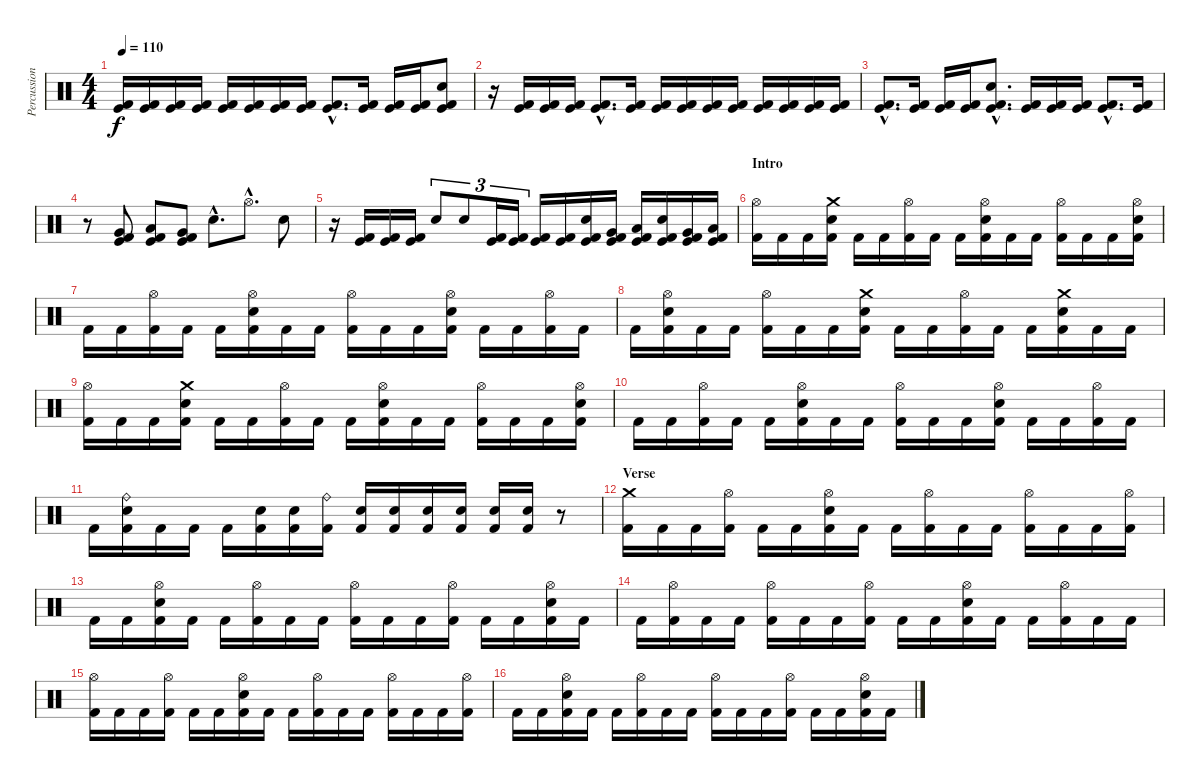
\track ("Percussion" "Percussion") {instrument percussion}
\staff {score}
\articulation defaults
\ts (4 4)
\tempo 110
\clef neutral
\ks c
("Kick (hit)" "Kick (hit) 2").16{dy f} ("Kick (hit)" "Kick (hit) 2").16 ("Kick (hit)" "Kick (hit) 2").16 ("Kick (hit)" "Kick (hit) 2").16 ("Kick (hit)" "Kick (hit) 2").16 ("Kick (hit)" "Kick (hit) 2").16 ("Kick (hit)" "Kick (hit) 2").16 ("Kick (hit)" "Kick (hit) 2").16 ("Kick (hit)"{hac} "Kick (hit) 2"{hac}).8{d} ("Kick (hit)" "Kick (hit) 2").16 ("Kick (hit)" "Kick (hit) 2").16 ("Kick (hit)" "Kick (hit) 2").16 ("Electric Snare (hit)" "Kick (hit)" "Kick (hit) 2").8 |
r.16 ("Kick (hit)" "Kick (hit) 2").16 ("Kick (hit)" "Kick (hit) 2").16 ("Kick (hit)" "Kick (hit) 2").16 ("Kick (hit)"{hac} "Kick (hit) 2"{hac}).8{d} ("Kick (hit)" "Kick (hit) 2").16 ("Kick (hit)" "Kick (hit) 2").16 ("Kick (hit)" "Kick (hit) 2").16 ("Kick (hit)" "Kick (hit) 2").16 ("Kick (hit)" "Kick (hit) 2").16 ("Kick (hit)" "Kick (hit) 2").16 ("Kick (hit)" "Kick (hit) 2").16 ("Kick (hit)" "Kick (hit) 2").16 ("Kick (hit)" "Kick (hit) 2").16 |
("Kick (hit)"{hac} "Kick (hit) 2"{hac}).8{d} ("Kick (hit)" "Kick (hit) 2").16 ("Kick (hit)" "Kick (hit) 2").16 ("Kick (hit)" "Kick (hit) 2").16 ("Electric Snare (hit)"{hac} "Kick (hit)"{hac} "Kick (hit) 2"{hac}).8{d} ("Kick (hit)" "Kick (hit) 2").16 ("Kick (hit)" "Kick (hit) 2").16 ("Kick (hit)" "Kick (hit) 2").16 ("Kick (hit)"{hac} "Kick (hit) 2"{hac}).8{d} ("Kick (hit)" "Kick (hit) 2").16 |
r.8 ("Very Low Tom (hit)" "Kick (hit) 2" "Kick (hit)").8 ("Low Tom (hit)" "Kick (hit) 2" "Kick (hit)").8 ("Very Low Tom (hit)" "Kick (hit) 2" "Kick (hit)").8 "Electric Snare (hit)"{hac}.8{d} "Hi-Hat (open)"{hac}.8{d} "Electric Snare (hit)".8 |
r.16 ("Kick (hit) 2" "Kick (hit)").16 ("Kick (hit) 2" "Kick (hit)").16 ("Kick (hit) 2" "Kick (hit)").16 "Electric Snare (hit)".8{tu (3 2)} "Electric Snare (hit)".8{tu (3 2)} ("Kick (hit) 2" "Kick (hit)").16{tu (3 2)} ("Kick (hit) 2" "Kick (hit)").16{tu (3 2)} ("Kick (hit) 2" "Kick (hit)").16 ("Kick (hit) 2" "Kick (hit)").16 ("Electric Snare (hit)" "Kick (hit) 2" "Kick (hit)").16 ("Very Low Tom (hit)" "Kick (hit) 2" "Kick (hit)").16 ("Low Floor Tom (hit)" "Kick (hit) 2" "Kick (hit)").16 ("Electric Snare (hit)" "Kick (hit) 2" "Kick (hit)").16 ("Very Low Tom (hit)" "Kick (hit) 2" "Kick (hit)").16 ("Low Floor Tom (hit)" "Kick (hit) 2" "Kick (hit)").16 |
\section ("" "Intro")
("Hi-Hat (open)" "Kick (hit) 2").16 "Kick (hit) 2".16 "Kick (hit) 2".16 ("Crash medium (hit)" "Electric Snare (hit)" "Kick (hit) 2").16 "Kick (hit) 2".16 "Kick (hit) 2".16 ("Hi-Hat (open)" "Kick (hit) 2").16 "Kick (hit) 2".16 "Kick (hit) 2".16 ("Hi-Hat (open)" "Electric Snare (hit)" "Kick (hit) 2").16 "Kick (hit) 2".16 "Kick (hit) 2".16 ("Hi-Hat (open)" "Kick (hit) 2").16 "Kick (hit) 2".16 "Kick (hit) 2".16 ("Hi-Hat (open)" "Electric Snare (hit)" "Kick (hit) 2").16 |
"Kick (hit) 2".16 "Kick (hit) 2".16 ("Hi-Hat (open)" "Kick (hit) 2").16 "Kick (hit) 2".16 "Kick (hit) 2".16 ("Hi-Hat (open)" "Electric Snare (hit)" "Kick (hit) 2").16 "Kick (hit) 2".16 "Kick (hit) 2".16 ("Hi-Hat (open)" "Kick (hit) 2").16 "Kick (hit) 2".16 "Kick (hit) 2".16 ("Hi-Hat (open)" "Electric Snare (hit)" "Kick (hit) 2").16 "Kick (hit) 2".16 "Kick (hit) 2".16 ("Hi-Hat (open)" "Kick (hit) 2").16 "Kick (hit) 2".16 |
"Kick (hit) 2".16 ("Hi-Hat (open)" "Electric Snare (hit)" "Kick (hit) 2").16 "Kick (hit) 2".16 "Kick (hit) 2".16 ("Hi-Hat (open)" "Kick (hit) 2").16 "Kick (hit) 2".16 "Kick (hit) 2".16 ("Crash medium (hit)" "Electric Snare (hit)" "Kick (hit) 2").16 "Kick (hit) 2".16 "Kick (hit) 2".16 ("Hi-Hat (open)" "Kick (hit) 2").16 "Kick (hit) 2".16 "Kick (hit) 2".16 ("Crash medium (hit)" "Electric Snare (hit)" "Kick (hit) 2").16 "Kick (hit) 2".16 "Kick (hit) 2".16 |
("Hi-Hat (open)" "Kick (hit) 2").16 "Kick (hit) 2".16 "Kick (hit) 2".16 ("Crash medium (hit)" "Electric Snare (hit)" "Kick (hit) 2").16 "Kick (hit) 2".16 "Kick (hit) 2".16 ("Hi-Hat (open)" "Kick (hit) 2").16 "Kick (hit) 2".16 "Kick (hit) 2".16 ("Hi-Hat (open)" "Electric Snare (hit)" "Kick (hit) 2").16 "Kick (hit) 2".16 "Kick (hit) 2".16 ("Hi-Hat (open)" "Kick (hit) 2").16 "Kick (hit) 2".16 "Kick (hit) 2".16 ("Hi-Hat (open)" "Electric Snare (hit)" "Kick (hit) 2").16 |
"Kick (hit) 2".16 "Kick (hit) 2".16 ("Hi-Hat (open)" "Kick (hit) 2").16 "Kick (hit) 2".16 "Kick (hit) 2".16 ("Hi-Hat (open)" "Electric Snare (hit)" "Kick (hit) 2").16 "Kick (hit) 2".16 "Kick (hit) 2".16 ("Hi-Hat (open)" "Kick (hit) 2").16 "Kick (hit) 2".16 "Kick (hit) 2".16 ("Hi-Hat (open)" "Electric Snare (hit)" "Kick (hit) 2").16 "Kick (hit) 2".16 "Kick (hit) 2".16 ("Hi-Hat (open)" "Kick (hit) 2").16 "Kick (hit) 2".16 |
"Kick (hit) 2".16 ("Ride (bell)" "Electric Snare (hit)" "Kick (hit) 2").16 "Kick (hit) 2".16 "Kick (hit) 2".16 "Kick (hit) 2".16 ("Electric Snare (hit)" "Kick (hit) 2").16 ("Electric Snare (hit)" "Kick (hit) 2").16 ("Ride (bell)" "Kick (hit) 2").16 ("Electric Snare (hit)" "Kick (hit) 2").16 ("Electric Snare (hit)" "Kick (hit) 2").16 ("Electric Snare (hit)" "Kick (hit) 2").16 ("Electric Snare (hit)" "Kick (hit) 2").16 ("Electric Snare (hit)" "Kick (hit) 2").16 ("Electric Snare (hit)" "Kick (hit) 2").16 r.8 |
\section ("" "Verse")
("Crash medium (hit)" "Kick (hit) 2").16 "Kick (hit) 2".16 "Kick (hit) 2".16 ("Hi-Hat (open)" "Kick (hit) 2").16 "Kick (hit) 2".16 "Kick (hit) 2".16 ("Hi-Hat (open)" "Electric Snare (hit)" "Kick (hit) 2").16 "Kick (hit) 2".16 "Kick (hit) 2".16 ("Hi-Hat (open)" "Kick (hit) 2").16 "Kick (hit) 2".16 "Kick (hit) 2".16 ("Hi-Hat (open)" "Kick (hit) 2").16 "Kick (hit) 2".16 "Kick (hit) 2".16 ("Hi-Hat (open)" "Kick (hit) 2").16 |
"Kick (hit) 2".16 "Kick (hit) 2".16 ("Hi-Hat (open)" "Electric Snare (hit)" "Kick (hit) 2").16 "Kick (hit) 2".16 "Kick (hit) 2".16 ("Hi-Hat (open)" "Kick (hit) 2").16 "Kick (hit) 2".16 "Kick (hit) 2".16 ("Hi-Hat (open)" "Kick (hit) 2").16 "Kick (hit) 2".16 "Kick (hit) 2".16 ("Hi-Hat (open)" "Kick (hit) 2").16 "Kick (hit) 2".16 "Kick (hit) 2".16 ("Hi-Hat (open)" "Electric Snare (hit)" "Kick (hit) 2").16 "Kick (hit) 2".16 |
"Kick (hit) 2".16 ("Hi-Hat (open)" "Kick (hit) 2").16 "Kick (hit) 2".16 "Kick (hit) 2".16 ("Hi-Hat (open)" "Kick (hit) 2").16 "Kick (hit) 2".16 "Kick (hit) 2".16 ("Hi-Hat (open)" "Kick (hit) 2").16 "Kick (hit) 2".16 "Kick (hit) 2".16 ("Hi-Hat (open)" "Electric Snare (hit)" "Kick (hit) 2").16 "Kick (hit) 2".16 "Kick (hit) 2".16 ("Hi-Hat (open)" "Kick (hit) 2").16 "Kick (hit) 2".16 "Kick (hit) 2".16 |
("Hi-Hat (open)" "Kick (hit) 2").16 "Kick (hit) 2".16 "Kick (hit) 2".16 ("Hi-Hat (open)" "Kick (hit) 2").16 "Kick (hit) 2".16 "Kick (hit) 2".16 ("Hi-Hat (open)" "Electric Snare (hit)" "Kick (hit) 2").16 "Kick (hit) 2".16 "Kick (hit) 2".16 ("Hi-Hat (open)" "Kick (hit) 2").16 "Kick (hit) 2".16 "Kick (hit) 2".16 ("Hi-Hat (open)" "Kick (hit) 2").16 "Kick (hit) 2".16 "Kick (hit) 2".16 ("Hi-Hat (open)" "Kick (hit) 2").16 |
"Kick (hit) 2".16 "Kick (hit) 2".16 ("Hi-Hat (open)" "Electric Snare (hit)" "Kick (hit) 2").16 "Kick (hit) 2".16 "Kick (hit) 2".16 ("Hi-Hat (open)" "Kick (hit) 2").16 "Kick (hit) 2".16 "Kick (hit) 2".16 ("Hi-Hat (open)" "Kick (hit) 2").16 "Kick (hit) 2".16 "Kick (hit) 2".16 ("Hi-Hat (open)" "Kick (hit) 2").16 "Kick (hit) 2".16 "Kick (hit) 2".16 ("Hi-Hat (open)" "Electric Snare (hit)" "Kick (hit) 2").16 "Kick (hit) 2".16
